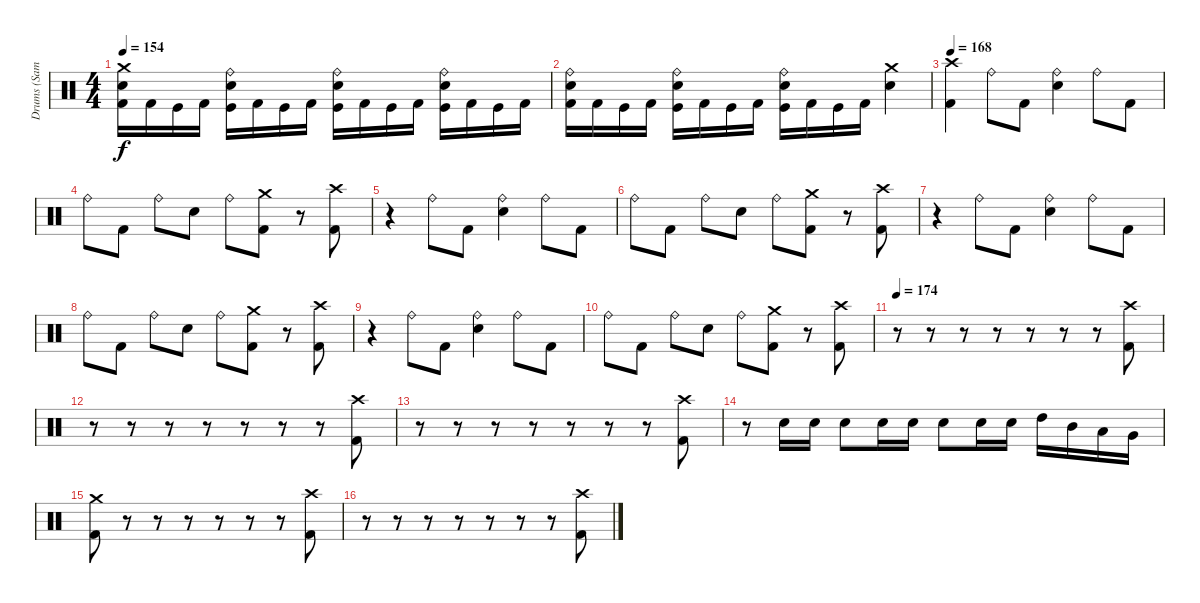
\track ("Drums (Samuelson)" "Drums (Sam") {instrument percussion}
\staff
\articulation defaults
\ts (4 4)
\tempo 154
\clef neutral
\ks c
("Crash medium (hit)" "Electric Snare (hit)" "Kick (hit) 2").16{dy f} "Kick (hit) 2".16 "Kick (hit)".16 "Kick (hit) 2".16 ("Ride (bell)" "Electric Snare (hit)" "Kick (hit)").16 "Kick (hit) 2".16 "Kick (hit)".16 "Kick (hit) 2".16 ("Ride (bell)" "Electric Snare (hit)" "Kick (hit)").16 "Kick (hit) 2".16 "Kick (hit)".16 "Kick (hit) 2".16 ("Ride (bell)" "Electric Snare (hit)" "Kick (hit)").16 "Kick (hit) 2".16 "Kick (hit)".16 "Kick (hit) 2".16 |
("Ride (bell)" "Electric Snare (hit)" "Kick (hit) 2").16 "Kick (hit) 2".16 "Kick (hit)".16 "Kick (hit) 2".16 ("Ride (bell)" "Electric Snare (hit)" "Kick (hit)").16 "Kick (hit) 2".16 "Kick (hit)".16 "Kick (hit) 2".16 ("Ride (bell)" "Electric Snare (hit)" "Kick (hit)").16 "Kick (hit) 2".16 "Kick (hit)".16 "Kick (hit) 2".16 ("Crash medium (hit)" "Electric Snare (hit)").4 |
\tempo 168
("Crash high (hit)" "Kick (hit) 2").4 "Ride (bell)".8 "Kick (hit) 2".8 ("Ride (bell)" "Electric Snare (hit)").4 "Ride (bell)".8 "Kick (hit) 2".8 |
"Ride (bell)".8 "Kick (hit) 2".8 "Ride (bell)".8 "Electric Snare (hit)".8 "Ride (bell)".8 ("Crash medium (hit)" "Kick (hit) 2").8 r.8 ("Crash high (hit)" "Kick (hit) 2").8 |
r.4 "Ride (bell)".8 "Kick (hit) 2".8 ("Ride (bell)" "Electric Snare (hit)").4 "Ride (bell)".8 "Kick (hit) 2".8 |
"Ride (bell)".8 "Kick (hit) 2".8 "Ride (bell)".8 "Electric Snare (hit)".8 "Ride (bell)".8 ("Crash medium (hit)" "Kick (hit) 2").8 r.8 ("Crash high (hit)" "Kick (hit) 2").8 |
r.4 "Ride (bell)".8 "Kick (hit) 2".8 ("Ride (bell)" "Electric Snare (hit)").4 "Ride (bell)".8 "Kick (hit) 2".8 |
"Ride (bell)".8 "Kick (hit) 2".8 "Ride (bell)".8 "Electric Snare (hit)".8 "Ride (bell)".8 ("Crash medium (hit)" "Kick (hit) 2").8 r.8 ("Crash high (hit)" "Kick (hit) 2").8 |
r.4 "Ride (bell)".8 "Kick (hit) 2".8 ("Ride (bell)" "Electric Snare (hit)").4 "Ride (bell)".8 "Kick (hit) 2".8 |
"Ride (bell)".8 "Kick (hit) 2".8 "Ride (bell)".8 "Electric Snare (hit)".8 "Ride (bell)".8 ("Crash medium (hit)" "Kick (hit) 2").8 r.8 ("Crash high (hit)" "Kick (hit) 2").8 |
\tempo 174
r.8 r.8 r.8 r.8 r.8 r.8 r.8 ("Crash high (hit)" "Kick (hit) 2").8 |
r.8 r.8 r.8 r.8 r.8 r.8 r.8 ("Crash high (hit)" "Kick (hit) 2").8 |
r.8 r.8 r.8 r.8 r.8 r.8 r.8 ("Crash high (hit)" "Kick (hit) 2").8 |
r.8 "Electric Snare (hit)".16 "Electric Snare (hit)".16 "Electric Snare (hit)".8 "Electric Snare (hit)".16 "Electric Snare (hit)".16 "Electric Snare (hit)".8 "Electric Snare (hit)".16 "Electric Snare (hit)".16 "High Tom (hit)".16 "Mid Tom (hit)".16 "Low Tom (hit)".16 "Very Low Tom (hit)".16 |
("Crash medium (hit)" "Kick (hit) 2").8 r.8 r.8 r.8 r.8 r.8 r.8 ("Crash high (hit)" "Kick (hit) 2").8 |
r.8 r.8 r.8 r.8 r.8 r.8 r.8 ("Crash high (hit)" "Kick (hit) 2").8
